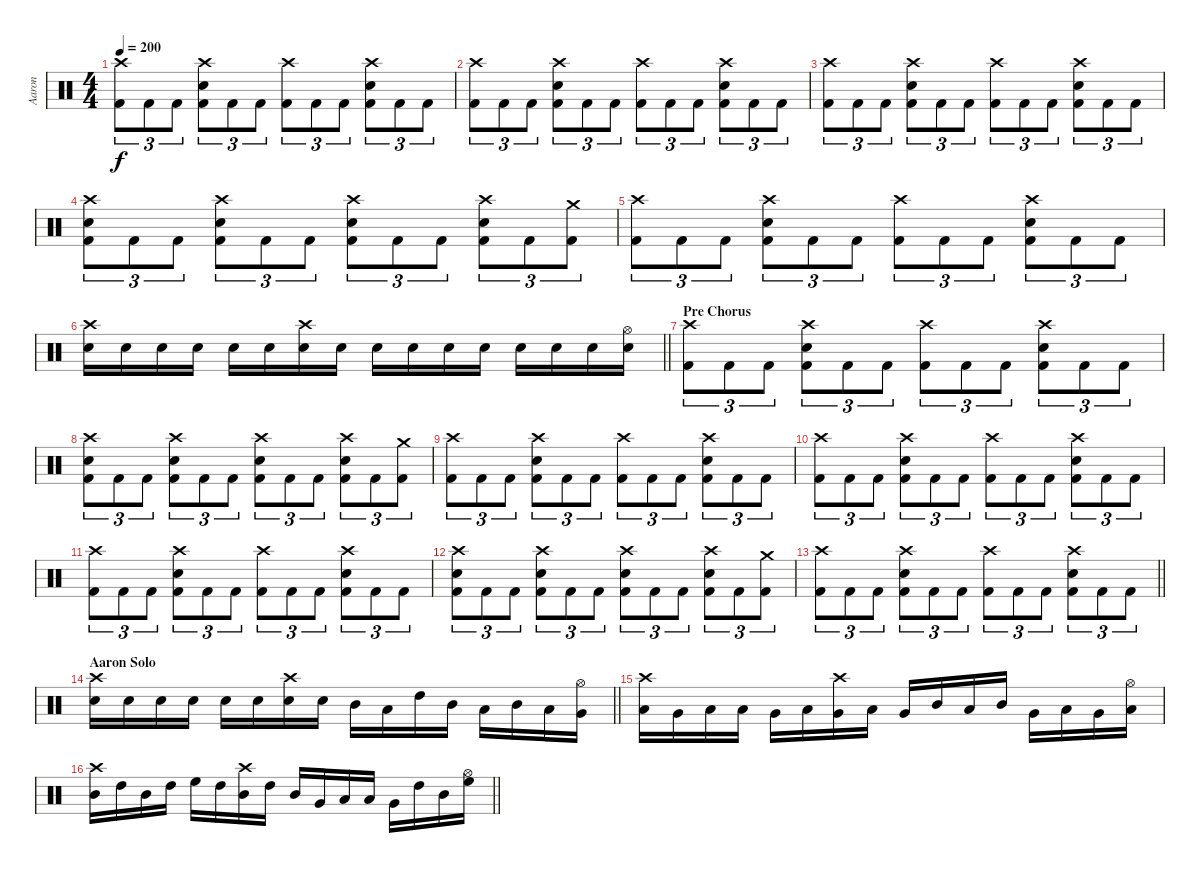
\track ("Aaron" "Aaron") {instrument percussion}
\staff {score}
\articulation defaults
\ts (4 4)
\tempo 200
\clef neutral
\ks c
("Crash high (hit)" "Kick (hit) 2").8{tu (3 2) dy f} "Kick (hit) 2".8{tu (3 2)} "Kick (hit) 2".8{tu (3 2)} ("Crash high (hit)" "Snare (hit) 2" "Kick (hit) 2").8{tu (3 2)} "Kick (hit) 2".8{tu (3 2)} "Kick (hit) 2".8{tu (3 2)} ("Crash high (hit)" "Kick (hit) 2").8{tu (3 2)} "Kick (hit) 2".8{tu (3 2)} "Kick (hit) 2".8{tu (3 2)} ("Crash high (hit)" "Snare (hit) 2" "Kick (hit) 2").8{tu (3 2)} "Kick (hit) 2".8{tu (3 2)} "Kick (hit) 2".8{tu (3 2)} |
("Crash high (hit)" "Kick (hit) 2").8{tu (3 2)} "Kick (hit) 2".8{tu (3 2)} "Kick (hit) 2".8{tu (3 2)} ("Crash high (hit)" "Snare (hit) 2" "Kick (hit) 2").8{tu (3 2)} "Kick (hit) 2".8{tu (3 2)} "Kick (hit) 2".8{tu (3 2)} ("Crash high (hit)" "Kick (hit) 2").8{tu (3 2)} "Kick (hit) 2".8{tu (3 2)} "Kick (hit) 2".8{tu (3 2)} ("Crash high (hit)" "Snare (hit) 2" "Kick (hit) 2").8{tu (3 2)} "Kick (hit) 2".8{tu (3 2)} "Kick (hit) 2".8{tu (3 2)} |
("Crash high (hit)" "Kick (hit) 2").8{tu (3 2)} "Kick (hit) 2".8{tu (3 2)} "Kick (hit) 2".8{tu (3 2)} ("Crash high (hit)" "Snare (hit) 2" "Kick (hit) 2").8{tu (3 2)} "Kick (hit) 2".8{tu (3 2)} "Kick (hit) 2".8{tu (3 2)} ("Crash high (hit)" "Kick (hit) 2").8{tu (3 2)} "Kick (hit) 2".8{tu (3 2)} "Kick (hit) 2".8{tu (3 2)} ("Crash high (hit)" "Snare (hit) 2" "Kick (hit) 2").8{tu (3 2)} "Kick (hit) 2".8{tu (3 2)} "Kick (hit) 2".8{tu (3 2)} |
("Crash high (hit)" "Snare (hit) 2" "Kick (hit) 2").8{tu (3 2)} "Kick (hit) 2".8{tu (3 2)} "Kick (hit) 2".8{tu (3 2)} ("Crash high (hit)" "Snare (hit) 2" "Kick (hit) 2").8{tu (3 2)} "Kick (hit) 2".8{tu (3 2)} "Kick (hit) 2".8{tu (3 2)} ("Crash high (hit)" "Snare (hit) 2" "Kick (hit) 2").8{tu (3 2)} "Kick (hit) 2".8{tu (3 2)} "Kick (hit) 2".8{tu (3 2)} ("Crash high (hit)" "Snare (hit) 2" "Kick (hit) 2").8{tu (3 2)} "Kick (hit) 2".8{tu (3 2)} ("Crash medium (hit)" "Kick (hit) 2").8{tu (3 2)} |
("Crash high (hit)" "Kick (hit) 2").8{tu (3 2)} "Kick (hit) 2".8{tu (3 2)} "Kick (hit) 2".8{tu (3 2)} ("Crash high (hit)" "Snare (hit) 2" "Kick (hit) 2").8{tu (3 2)} "Kick (hit) 2".8{tu (3 2)} "Kick (hit) 2".8{tu (3 2)} ("Crash high (hit)" "Kick (hit) 2").8{tu (3 2)} "Kick (hit) 2".8{tu (3 2)} "Kick (hit) 2".8{tu (3 2)} ("Crash high (hit)" "Snare (hit) 2" "Kick (hit) 2").8{tu (3 2)} "Kick (hit) 2".8{tu (3 2)} "Kick (hit) 2".8{tu (3 2)} |
\barLineRight lightlight
("Crash high (hit)" "Snare (hit) 2").16 "Snare (hit) 2".16 "Snare (hit) 2".16 "Snare (hit) 2".16 "Snare (hit) 2".16 "Snare (hit) 2".16 ("Crash high (hit)" "Snare (hit) 2").16 "Snare (hit) 2".16 "Snare (hit) 2".16 "Snare (hit) 2".16 "Snare (hit) 2".16 "Snare (hit) 2".16 "Snare (hit) 2".16 "Snare (hit) 2".16 "Snare (hit) 2".16 ("Hi-Hat (open)" "Snare (hit) 2").16 |
\section ("" "Pre Chorus")
("Crash high (hit)" "Kick (hit) 2").8{tu (3 2)} "Kick (hit) 2".8{tu (3 2)} "Kick (hit) 2".8{tu (3 2)} ("Crash high (hit)" "Snare (hit) 2" "Kick (hit) 2").8{tu (3 2)} "Kick (hit) 2".8{tu (3 2)} "Kick (hit) 2".8{tu (3 2)} ("Crash high (hit)" "Kick (hit) 2").8{tu (3 2)} "Kick (hit) 2".8{tu (3 2)} "Kick (hit) 2".8{tu (3 2)} ("Crash high (hit)" "Snare (hit) 2" "Kick (hit) 2").8{tu (3 2)} "Kick (hit) 2".8{tu (3 2)} "Kick (hit) 2".8{tu (3 2)} |
("Crash high (hit)" "Snare (hit) 2" "Kick (hit) 2").8{tu (3 2)} "Kick (hit) 2".8{tu (3 2)} "Kick (hit) 2".8{tu (3 2)} ("Crash high (hit)" "Snare (hit) 2" "Kick (hit) 2").8{tu (3 2)} "Kick (hit) 2".8{tu (3 2)} "Kick (hit) 2".8{tu (3 2)} ("Crash high (hit)" "Snare (hit) 2" "Kick (hit) 2").8{tu (3 2)} "Kick (hit) 2".8{tu (3 2)} "Kick (hit) 2".8{tu (3 2)} ("Crash high (hit)" "Snare (hit) 2" "Kick (hit) 2").8{tu (3 2)} "Kick (hit) 2".8{tu (3 2)} ("Crash medium (hit)" "Kick (hit) 2").8{tu (3 2)} |
("Crash high (hit)" "Kick (hit) 2").8{tu (3 2)} "Kick (hit) 2".8{tu (3 2)} "Kick (hit) 2".8{tu (3 2)} ("Crash high (hit)" "Snare (hit) 2" "Kick (hit) 2").8{tu (3 2)} "Kick (hit) 2".8{tu (3 2)} "Kick (hit) 2".8{tu (3 2)} ("Crash high (hit)" "Kick (hit) 2").8{tu (3 2)} "Kick (hit) 2".8{tu (3 2)} "Kick (hit) 2".8{tu (3 2)} ("Crash high (hit)" "Snare (hit) 2" "Kick (hit) 2").8{tu (3 2)} "Kick (hit) 2".8{tu (3 2)} "Kick (hit) 2".8{tu (3 2)} |
("Crash high (hit)" "Kick (hit) 2").8{tu (3 2)} "Kick (hit) 2".8{tu (3 2)} "Kick (hit) 2".8{tu (3 2)} ("Crash high (hit)" "Snare (hit) 2" "Kick (hit) 2").8{tu (3 2)} "Kick (hit) 2".8{tu (3 2)} "Kick (hit) 2".8{tu (3 2)} ("Crash high (hit)" "Kick (hit) 2").8{tu (3 2)} "Kick (hit) 2".8{tu (3 2)} "Kick (hit) 2".8{tu (3 2)} ("Crash high (hit)" "Snare (hit) 2" "Kick (hit) 2").8{tu (3 2)} "Kick (hit) 2".8{tu (3 2)} "Kick (hit) 2".8{tu (3 2)} |
("Crash high (hit)" "Kick (hit) 2").8{tu (3 2)} "Kick (hit) 2".8{tu (3 2)} "Kick (hit) 2".8{tu (3 2)} ("Crash high (hit)" "Snare (hit) 2" "Kick (hit) 2").8{tu (3 2)} "Kick (hit) 2".8{tu (3 2)} "Kick (hit) 2".8{tu (3 2)} ("Crash high (hit)" "Kick (hit) 2").8{tu (3 2)} "Kick (hit) 2".8{tu (3 2)} "Kick (hit) 2".8{tu (3 2)} ("Crash high (hit)" "Snare (hit) 2" "Kick (hit) 2").8{tu (3 2)} "Kick (hit) 2".8{tu (3 2)} "Kick (hit) 2".8{tu (3 2)} |
("Crash high (hit)" "Snare (hit) 2" "Kick (hit) 2").8{tu (3 2)} "Kick (hit) 2".8{tu (3 2)} "Kick (hit) 2".8{tu (3 2)} ("Crash high (hit)" "Snare (hit) 2" "Kick (hit) 2").8{tu (3 2)} "Kick (hit) 2".8{tu (3 2)} "Kick (hit) 2".8{tu (3 2)} ("Crash high (hit)" "Snare (hit) 2" "Kick (hit) 2").8{tu (3 2)} "Kick (hit) 2".8{tu (3 2)} "Kick (hit) 2".8{tu (3 2)} ("Crash high (hit)" "Snare (hit) 2" "Kick (hit) 2").8{tu (3 2)} "Kick (hit) 2".8{tu (3 2)} ("Crash medium (hit)" "Kick (hit) 2").8{tu (3 2)} |
\barLineRight lightlight
("Crash high (hit)" "Kick (hit) 2").8{tu (3 2)} "Kick (hit) 2".8{tu (3 2)} "Kick (hit) 2".8{tu (3 2)} ("Crash high (hit)" "Snare (hit) 2" "Kick (hit) 2").8{tu (3 2)} "Kick (hit) 2".8{tu (3 2)} "Kick (hit) 2".8{tu (3 2)} ("Crash high (hit)" "Kick (hit) 2").8{tu (3 2)} "Kick (hit) 2".8{tu (3 2)} "Kick (hit) 2".8{tu (3 2)} ("Crash high (hit)" "Snare (hit) 2" "Kick (hit) 2").8{tu (3 2)} "Kick (hit) 2".8{tu (3 2)} "Kick (hit) 2".8{tu (3 2)} |
\section ("" "Aaron Solo")
\barLineRight lightlight
("Crash high (hit)" "Snare (hit) 2").16 "Snare (hit) 2".16 "Snare (hit) 2".16 "Snare (hit) 2".16 "Snare (hit) 2".16 "Snare (hit) 2".16 ("Crash high (hit)" "Snare (hit) 2").16 "Snare (hit) 2".16 "Mid Tom (hit)".16 "Low Tom (hit)".16 "High Tom (hit)".16 "Mid Tom (hit)".16 "Low Tom (hit)".16 "Mid Tom (hit)".16 "Low Tom (hit)".16 ("Hi-Hat (open)" "Very Low Tom (hit)").16 |
("Crash high (hit)" "Low Tom (hit)").16 "Very Low Tom (hit)".16 "Low Floor Tom (hit)".16 "Low Tom (hit)".16 "Very Low Tom (hit)".16 "Low Floor Tom (hit)".16 ("Crash high (hit)" "Very Low Tom (hit)").16 "Low Floor Tom (hit)".16 "Very Low Tom (hit)".16 "Mid Tom (hit)".16 "Low Tom (hit)".16 "Mid Tom (hit)".16 "Very Low Tom (hit)".16 "Low Floor Tom (hit)".16 "Very Low Tom (hit)".16 ("Hi-Hat (open)" "Low Tom (hit)").16 |
\barLineRight lightlight
("Crash high (hit)" "Mid Tom (hit)").16 "High Tom (hit)".16 "Mid Tom (hit)".16 "High Tom (hit)".16 "High Floor Tom (hit)".16 "High Tom (hit)".16 ("Crash high (hit)" "Mid Tom (hit)").16 "High Tom (hit)".16 "Mid Tom (hit)".16 "Very Low Tom (hit)".16 "Low Floor Tom (hit)".16 "Low Tom (hit)".16 "Very Low Tom (hit)".16 "High Tom (hit)".16 "Mid Tom (hit)".16 ("Hi-Hat (open)" "High Floor Tom (hit)").16
